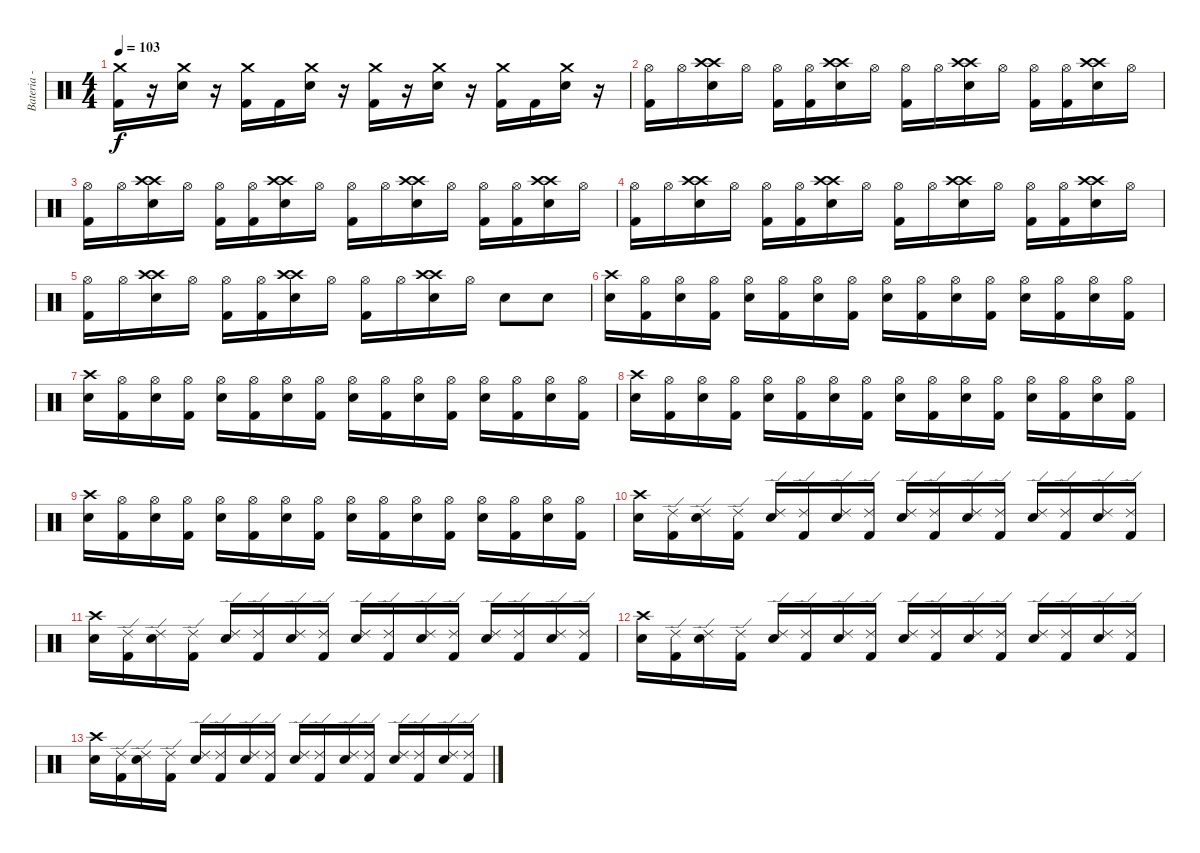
\track ("Bateria - Larzon" "Bateria - ") {instrument percussion}
\staff {score}
\articulation defaults
\ts (4 4)
\tempo 103
\clef neutral
\ks c
("Kick (hit) 2" "Crash medium (hit)").16{dy f} r.16 ("Snare (hit) 2" "Crash medium (hit)").16 r.16 ("Kick (hit) 2" "Crash medium (hit)").16 "Kick (hit) 2".16 ("Snare (hit) 2" "Crash medium (hit)").16 r.16 ("Kick (hit) 2" "Crash medium (hit)").16 r.16 ("Snare (hit) 2" "Crash medium (hit)").16 r.16 ("Kick (hit) 2" "Crash medium (hit)").16 "Kick (hit) 2".16 ("Snare (hit) 2" "Crash medium (hit)").16 r.16 |
("Kick (hit) 2" "Hi-Hat (open)").16 "Hi-Hat (open)".16 ("Snare (hit) 2" "Crash high (hit)" "Crash high (hit)").16 "Hi-Hat (open)".16 ("Kick (hit) 2" "Hi-Hat (open)").16 ("Kick (hit) 2" "Hi-Hat (open)").16 ("Snare (hit) 2" "Crash high (hit)" "Crash high (hit)").16 "Hi-Hat (open)".16 ("Kick (hit) 2" "Hi-Hat (open)").16 "Hi-Hat (open)".16 ("Snare (hit) 2" "Crash high (hit)" "Crash high (hit)").16 "Hi-Hat (open)".16 ("Kick (hit) 2" "Hi-Hat (open)").16 ("Kick (hit) 2" "Hi-Hat (open)").16 ("Snare (hit) 2" "Crash high (hit)" "Crash high (hit)").16 "Hi-Hat (open)".16 |
("Kick (hit) 2" "Hi-Hat (open)").16 "Hi-Hat (open)".16 ("Snare (hit) 2" "Crash high (hit)" "Crash high (hit)").16 "Hi-Hat (open)".16 ("Kick (hit) 2" "Hi-Hat (open)").16 ("Kick (hit) 2" "Hi-Hat (open)").16 ("Snare (hit) 2" "Crash high (hit)" "Crash high (hit)").16 "Hi-Hat (open)".16 ("Kick (hit) 2" "Hi-Hat (open)").16 "Hi-Hat (open)".16 ("Snare (hit) 2" "Crash high (hit)" "Crash high (hit)").16 "Hi-Hat (open)".16 ("Kick (hit) 2" "Hi-Hat (open)").16 ("Kick (hit) 2" "Hi-Hat (open)").16 ("Snare (hit) 2" "Crash high (hit)" "Crash high (hit)").16 "Hi-Hat (open)".16 |
("Kick (hit) 2" "Hi-Hat (open)").16 "Hi-Hat (open)".16 ("Snare (hit) 2" "Crash high (hit)" "Crash high (hit)").16 "Hi-Hat (open)".16 ("Kick (hit) 2" "Hi-Hat (open)").16 ("Kick (hit) 2" "Hi-Hat (open)").16 ("Snare (hit) 2" "Crash high (hit)" "Crash high (hit)").16 "Hi-Hat (open)".16 ("Kick (hit) 2" "Hi-Hat (open)").16 "Hi-Hat (open)".16 ("Snare (hit) 2" "Crash high (hit)" "Crash high (hit)").16 "Hi-Hat (open)".16 ("Kick (hit) 2" "Hi-Hat (open)").16 ("Kick (hit) 2" "Hi-Hat (open)").16 ("Snare (hit) 2" "Crash high (hit)" "Crash high (hit)").16 "Hi-Hat (open)".16 |
("Kick (hit) 2" "Hi-Hat (open)").16 "Hi-Hat (open)".16 ("Snare (hit) 2" "Crash high (hit)" "Crash high (hit)").16 "Hi-Hat (open)".16 ("Kick (hit) 2" "Hi-Hat (open)").16 ("Kick (hit) 2" "Hi-Hat (open)").16 ("Snare (hit) 2" "Crash high (hit)" "Crash high (hit)").16 "Hi-Hat (open)".16 ("Kick (hit) 2" "Hi-Hat (open)").16 "Hi-Hat (open)".16 ("Snare (hit) 2" "Crash high (hit)" "Crash high (hit)").16 "Hi-Hat (open)".16 "Snare (hit) 2".8 "Snare (hit) 2".8 |
("Snare (hit) 2" "Crash high (hit)").16{volume 8} ("Kick (hit) 2" "Hi-Hat (open)").16 ("Snare (hit) 2" "Hi-Hat (open)").16 ("Kick (hit) 2" "Hi-Hat (open)").16 ("Snare (hit) 2" "Hi-Hat (open)").16 ("Kick (hit) 2" "Hi-Hat (open)").16 ("Snare (hit) 2" "Hi-Hat (open)").16 ("Kick (hit) 2" "Hi-Hat (open)").16 ("Snare (hit) 2" "Hi-Hat (open)").16 ("Kick (hit) 2" "Hi-Hat (open)").16 ("Snare (hit) 2" "Hi-Hat (open)").16 ("Kick (hit) 2" "Hi-Hat (open)").16 ("Snare (hit) 2" "Hi-Hat (open)").16 ("Kick (hit) 2" "Hi-Hat (open)").16 ("Snare (hit) 2" "Hi-Hat (open)").16 ("Kick (hit) 2" "Hi-Hat (open)").16 |
("Snare (hit) 2" "Crash high (hit)").16 ("Kick (hit) 2" "Hi-Hat (open)").16 ("Snare (hit) 2" "Hi-Hat (open)").16 ("Kick (hit) 2" "Hi-Hat (open)").16 ("Snare (hit) 2" "Hi-Hat (open)").16 ("Kick (hit) 2" "Hi-Hat (open)").16 ("Snare (hit) 2" "Hi-Hat (open)").16 ("Kick (hit) 2" "Hi-Hat (open)").16 ("Snare (hit) 2" "Hi-Hat (open)").16 ("Kick (hit) 2" "Hi-Hat (open)").16 ("Snare (hit) 2" "Hi-Hat (open)").16 ("Kick (hit) 2" "Hi-Hat (open)").16 ("Snare (hit) 2" "Hi-Hat (open)").16 ("Kick (hit) 2" "Hi-Hat (open)").16 ("Snare (hit) 2" "Hi-Hat (open)").16 ("Kick (hit) 2" "Hi-Hat (open)").16 |
("Snare (hit) 2" "Crash high (hit)").16 ("Kick (hit) 2" "Hi-Hat (open)").16 ("Snare (hit) 2" "Hi-Hat (open)").16 ("Kick (hit) 2" "Hi-Hat (open)").16 ("Snare (hit) 2" "Hi-Hat (open)").16 ("Kick (hit) 2" "Hi-Hat (open)").16 ("Snare (hit) 2" "Hi-Hat (open)").16 ("Kick (hit) 2" "Hi-Hat (open)").16 ("Snare (hit) 2" "Hi-Hat (open)").16 ("Kick (hit) 2" "Hi-Hat (open)").16 ("Snare (hit) 2" "Hi-Hat (open)").16 ("Kick (hit) 2" "Hi-Hat (open)").16 ("Snare (hit) 2" "Hi-Hat (open)").16 ("Kick (hit) 2" "Hi-Hat (open)").16 ("Snare (hit) 2" "Hi-Hat (open)").16 ("Kick (hit) 2" "Hi-Hat (open)").16 |
("Snare (hit) 2" "Crash high (hit)").16 ("Kick (hit) 2" "Hi-Hat (open)").16 ("Snare (hit) 2" "Hi-Hat (open)").16 ("Kick (hit) 2" "Hi-Hat (open)").16 ("Snare (hit) 2" "Hi-Hat (open)").16 ("Kick (hit) 2" "Hi-Hat (open)").16 ("Snare (hit) 2" "Hi-Hat (open)").16 ("Kick (hit) 2" "Hi-Hat (open)").16 ("Snare (hit) 2" "Hi-Hat (open)").16 ("Kick (hit) 2" "Hi-Hat (open)").16 ("Snare (hit) 2" "Hi-Hat (open)").16 ("Kick (hit) 2" "Hi-Hat (open)").16 ("Snare (hit) 2" "Hi-Hat (open)").16 ("Kick (hit) 2" "Hi-Hat (open)").16 ("Snare (hit) 2" "Hi-Hat (open)").16 ("Kick (hit) 2" "Hi-Hat (open)").16 |
("Snare (hit) 2" "Crash high (hit)").16{volume 0} ("Kick (hit) 2" "Ride (edge) 2").16 ("Snare (hit) 2" "Ride (edge) 2").16 ("Kick (hit) 2" "Ride (edge) 2").16 ("Snare (hit) 2" "Ride (edge) 2").16 ("Kick (hit) 2" "Ride (edge) 2").16 ("Snare (hit) 2" "Ride (edge) 2").16 ("Kick (hit) 2" "Ride (edge) 2").16 ("Snare (hit) 2" "Ride (edge) 2").16 ("Kick (hit) 2" "Ride (edge) 2").16 ("Snare (hit) 2" "Ride (edge) 2").16 ("Kick (hit) 2" "Ride (edge) 2").16 ("Snare (hit) 2" "Ride (edge) 2").16 ("Kick (hit) 2" "Ride (edge) 2").16 ("Snare (hit) 2" "Ride (edge) 2").16 ("Kick (hit) 2" "Ride (edge) 2").16 |
("Snare (hit) 2" "Crash high (hit)").16 ("Kick (hit) 2" "Ride (edge) 2").16 ("Snare (hit) 2" "Ride (edge) 2").16 ("Kick (hit) 2" "Ride (edge) 2").16 ("Snare (hit) 2" "Ride (edge) 2").16 ("Kick (hit) 2" "Ride (edge) 2").16 ("Snare (hit) 2" "Ride (edge) 2").16 ("Kick (hit) 2" "Ride (edge) 2").16 ("Snare (hit) 2" "Ride (edge) 2").16 ("Kick (hit) 2" "Ride (edge) 2").16 ("Snare (hit) 2" "Ride (edge) 2").16 ("Kick (hit) 2" "Ride (edge) 2").16 ("Snare (hit) 2" "Ride (edge) 2").16 ("Kick (hit) 2" "Ride (edge) 2").16 ("Snare (hit) 2" "Ride (edge) 2").16 ("Kick (hit) 2" "Ride (edge) 2").16 |
("Snare (hit) 2" "Crash high (hit)").16 ("Kick (hit) 2" "Ride (edge) 2").16 ("Snare (hit) 2" "Ride (edge) 2").16 ("Kick (hit) 2" "Ride (edge) 2").16 ("Snare (hit) 2" "Ride (edge) 2").16 ("Kick (hit) 2" "Ride (edge) 2").16 ("Snare (hit) 2" "Ride (edge) 2").16 ("Kick (hit) 2" "Ride (edge) 2").16 ("Snare (hit) 2" "Ride (edge) 2").16 ("Kick (hit) 2" "Ride (edge) 2").16 ("Snare (hit) 2" "Ride (edge) 2").16 ("Kick (hit) 2" "Ride (edge) 2").16 ("Snare (hit) 2" "Ride (edge) 2").16 ("Kick (hit) 2" "Ride (edge) 2").16 ("Snare (hit) 2" "Ride (edge) 2").16 ("Kick (hit) 2" "Ride (edge) 2").16 |
("Snare (hit) 2" "Crash high (hit)").16 ("Kick (hit) 2" "Ride (edge) 2").16 ("Snare (hit) 2" "Ride (edge) 2").16 ("Kick (hit) 2" "Ride (edge) 2").16 ("Snare (hit) 2" "Ride (edge) 2").16 ("Kick (hit) 2" "Ride (edge) 2").16 ("Snare (hit) 2" "Ride (edge) 2").16 ("Kick (hit) 2" "Ride (edge) 2").16 ("Snare (hit) 2" "Ride (edge) 2").16 ("Kick (hit) 2" "Ride (edge) 2").16 ("Snare (hit) 2" "Ride (edge) 2").16 ("Kick (hit) 2" "Ride (edge) 2").16 ("Snare (hit) 2" "Ride (edge) 2").16 ("Kick (hit) 2" "Ride (edge) 2").16 ("Snare (hit) 2" "Ride (edge) 2").16 ("Kick (hit) 2" "Ride (edge) 2").16
